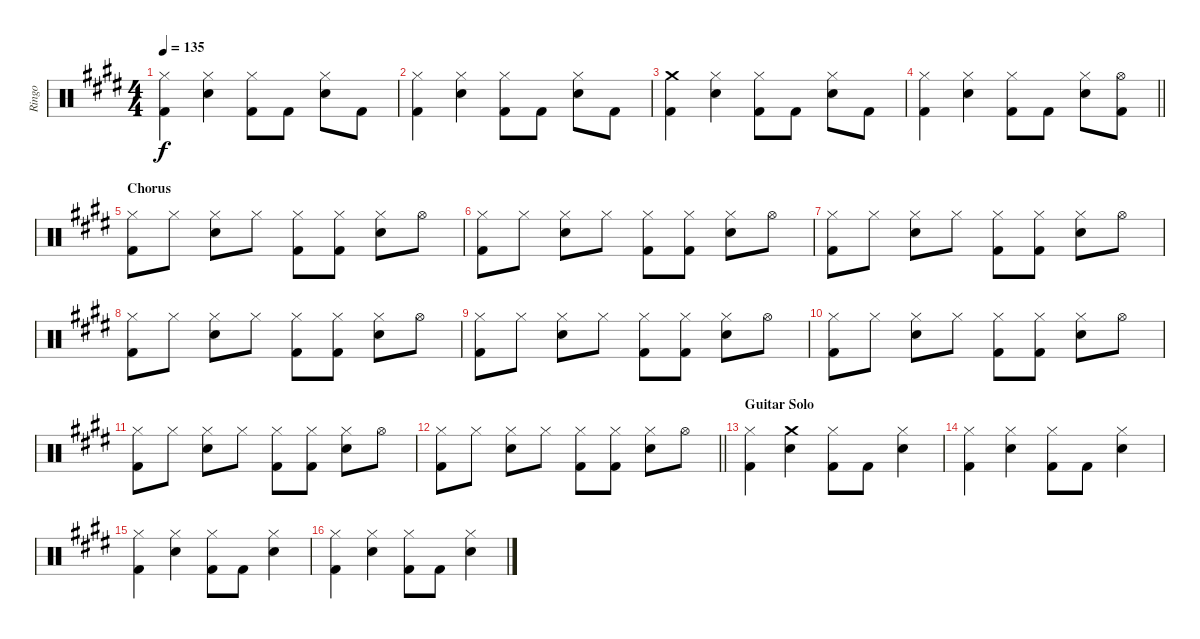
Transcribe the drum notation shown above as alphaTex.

\track ("Ringo" "Ringo") {instrument percussion}
\staff {score}
\articulation defaults
\ts (4 4)
\tempo 135
\clef neutral
\ks e
("Hi-Hat (closed)" "Kick (hit) 2").4{dy f} ("Hi-Hat (closed)" "Snare (hit) 2").4 ("Hi-Hat (closed)" "Kick (hit) 2").8 "Kick (hit) 2".8 ("Hi-Hat (closed)" "Snare (hit) 2").8 "Kick (hit) 2".8 |
("Hi-Hat (closed)" "Kick (hit) 2").4 ("Hi-Hat (closed)" "Snare (hit) 2").4 ("Hi-Hat (closed)" "Kick (hit) 2").8 "Kick (hit) 2".8 ("Hi-Hat (closed)" "Snare (hit) 2").8 "Kick (hit) 2".8 |
("Crash medium (hit)" "Kick (hit) 2").4 ("Hi-Hat (closed)" "Snare (hit) 2").4 ("Hi-Hat (closed)" "Kick (hit) 2").8 "Kick (hit) 2".8 ("Hi-Hat (closed)" "Snare (hit) 2").8 "Kick (hit) 2".8 |
\barLineRight lightlight
("Hi-Hat (closed)" "Kick (hit) 2").4 ("Hi-Hat (closed)" "Snare (hit) 2").4 ("Hi-Hat (closed)" "Kick (hit) 2").8 "Kick (hit) 2".8 ("Hi-Hat (closed)" "Snare (hit) 2").8 ("Hi-Hat (open)" "Kick (hit) 2").8 |
\section ("" "Chorus")
("Hi-Hat (closed)" "Kick (hit) 2").8 "Hi-Hat (closed)".8 ("Hi-Hat (closed)" "Snare (hit) 2").8 "Hi-Hat (closed)".8 ("Hi-Hat (closed)" "Kick (hit) 2").8 ("Hi-Hat (closed)" "Kick (hit) 2").8 ("Hi-Hat (closed)" "Snare (hit) 2").8 "Hi-Hat (open)".8 |
("Hi-Hat (closed)" "Kick (hit) 2").8 "Hi-Hat (closed)".8 ("Hi-Hat (closed)" "Snare (hit) 2").8 "Hi-Hat (closed)".8 ("Hi-Hat (closed)" "Kick (hit) 2").8 ("Hi-Hat (closed)" "Kick (hit) 2").8 ("Hi-Hat (closed)" "Snare (hit) 2").8 "Hi-Hat (open)".8 |
("Hi-Hat (closed)" "Kick (hit) 2").8 "Hi-Hat (closed)".8 ("Hi-Hat (closed)" "Snare (hit) 2").8 "Hi-Hat (closed)".8 ("Hi-Hat (closed)" "Kick (hit) 2").8 ("Hi-Hat (closed)" "Kick (hit) 2").8 ("Hi-Hat (closed)" "Snare (hit) 2").8 "Hi-Hat (open)".8 |
("Hi-Hat (closed)" "Kick (hit) 2").8 "Hi-Hat (closed)".8 ("Hi-Hat (closed)" "Snare (hit) 2").8 "Hi-Hat (closed)".8 ("Hi-Hat (closed)" "Kick (hit) 2").8 ("Hi-Hat (closed)" "Kick (hit) 2").8 ("Hi-Hat (closed)" "Snare (hit) 2").8 "Hi-Hat (open)".8 |
("Hi-Hat (closed)" "Kick (hit) 2").8 "Hi-Hat (closed)".8 ("Hi-Hat (closed)" "Snare (hit) 2").8 "Hi-Hat (closed)".8 ("Hi-Hat (closed)" "Kick (hit) 2").8 ("Hi-Hat (closed)" "Kick (hit) 2").8 ("Hi-Hat (closed)" "Snare (hit) 2").8 "Hi-Hat (open)".8 |
("Hi-Hat (closed)" "Kick (hit) 2").8 "Hi-Hat (closed)".8 ("Hi-Hat (closed)" "Snare (hit) 2").8 "Hi-Hat (closed)".8 ("Hi-Hat (closed)" "Kick (hit) 2").8 ("Hi-Hat (closed)" "Kick (hit) 2").8 ("Hi-Hat (closed)" "Snare (hit) 2").8 "Hi-Hat (open)".8 |
("Hi-Hat (closed)" "Kick (hit) 2").8 "Hi-Hat (closed)".8 ("Hi-Hat (closed)" "Snare (hit) 2").8 "Hi-Hat (closed)".8 ("Hi-Hat (closed)" "Kick (hit) 2").8 ("Hi-Hat (closed)" "Kick (hit) 2").8 ("Hi-Hat (closed)" "Snare (hit) 2").8 "Hi-Hat (open)".8 |
\barLineRight lightlight
("Hi-Hat (closed)" "Kick (hit) 2").8 "Hi-Hat (closed)".8 ("Hi-Hat (closed)" "Snare (hit) 2").8 "Hi-Hat (closed)".8 ("Hi-Hat (closed)" "Kick (hit) 2").8 ("Hi-Hat (closed)" "Kick (hit) 2").8 ("Hi-Hat (closed)" "Snare (hit) 2").8 "Hi-Hat (open)".8 |
\section ("" "Guitar Solo")
("Hi-Hat (closed)" "Kick (hit) 2").4 ("Crash medium (hit)" "Snare (hit) 2").4 ("Hi-Hat (closed)" "Kick (hit) 2").8 "Kick (hit) 2".8 ("Hi-Hat (closed)" "Snare (hit) 2").4 |
("Hi-Hat (closed)" "Kick (hit) 2").4 ("Hi-Hat (closed)" "Snare (hit) 2").4 ("Hi-Hat (closed)" "Kick (hit) 2").8 "Kick (hit) 2".8 ("Hi-Hat (closed)" "Snare (hit) 2").4 |
("Hi-Hat (closed)" "Kick (hit) 2").4 ("Hi-Hat (closed)" "Snare (hit) 2").4 ("Hi-Hat (closed)" "Kick (hit) 2").8 "Kick (hit) 2".8 ("Hi-Hat (closed)" "Snare (hit) 2").4 |
("Hi-Hat (closed)" "Kick (hit) 2").4 ("Hi-Hat (closed)" "Snare (hit) 2").4 ("Hi-Hat (closed)" "Kick (hit) 2").8 "Kick (hit) 2".8 ("Hi-Hat (closed)" "Snare (hit) 2").4
